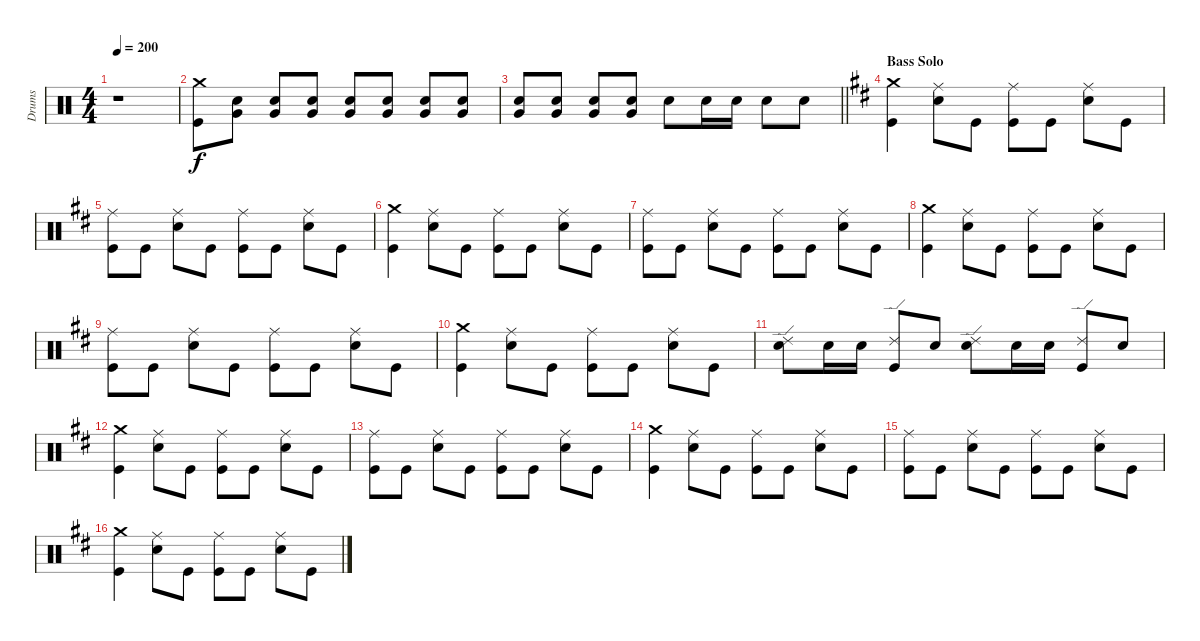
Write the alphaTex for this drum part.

\track ("Drums" "Drums") {instrument percussion}
\staff {score}
\articulation defaults
\ts (4 4)
\tempo 200
\clef neutral
\ks c
r.1{dy f} |
("Kick (hit)" "Crash medium (hit)").8 ("Snare (hit) 2" "Very Low Tom (hit)").8 ("Snare (hit) 2" "Very Low Tom (hit)").8 ("Snare (hit) 2" "Very Low Tom (hit)").8 ("Snare (hit) 2" "Very Low Tom (hit)").8 ("Snare (hit) 2" "Very Low Tom (hit)").8 ("Snare (hit) 2" "Very Low Tom (hit)").8 ("Snare (hit) 2" "Very Low Tom (hit)").8 |
\barLineRight lightlight
("Snare (hit) 2" "Very Low Tom (hit)").8 ("Snare (hit) 2" "Very Low Tom (hit)").8 ("Snare (hit) 2" "Very Low Tom (hit)").8 ("Snare (hit) 2" "Very Low Tom (hit)").8 "Snare (hit) 2".8 "Snare (hit) 2".16 "Snare (hit) 2".16 "Snare (hit) 2".8 "Snare (hit) 2".8 |
\section ("" "Bass Solo")
\ks d
("Kick (hit)" "Crash medium (hit)").4 ("Snare (hit) 2" "Ride (middle)").8 "Kick (hit)".8 ("Kick (hit)" "Ride (middle)").8 "Kick (hit)".8 ("Snare (hit) 2" "Ride (middle)").8 "Kick (hit)".8 |
("Kick (hit)" "Ride (middle)").8 "Kick (hit)".8 ("Snare (hit) 2" "Ride (middle)").8 "Kick (hit)".8 ("Kick (hit)" "Ride (middle)").8 "Kick (hit)".8 ("Snare (hit) 2" "Ride (middle)").8 "Kick (hit)".8 |
("Kick (hit)" "Crash medium (hit)").4 ("Snare (hit) 2" "Ride (middle)").8 "Kick (hit)".8 ("Kick (hit)" "Ride (middle)").8 "Kick (hit)".8 ("Snare (hit) 2" "Ride (middle)").8 "Kick (hit)".8 |
("Kick (hit)" "Ride (middle)").8 "Kick (hit)".8 ("Snare (hit) 2" "Ride (middle)").8 "Kick (hit)".8 ("Kick (hit)" "Ride (middle)").8 "Kick (hit)".8 ("Snare (hit) 2" "Ride (middle)").8 "Kick (hit)".8 |
("Kick (hit)" "Crash medium (hit)").4 ("Snare (hit) 2" "Ride (middle)").8 "Kick (hit)".8 ("Kick (hit)" "Ride (middle)").8 "Kick (hit)".8 ("Snare (hit) 2" "Ride (middle)").8 "Kick (hit)".8 |
("Kick (hit)" "Ride (middle)").8 "Kick (hit)".8 ("Snare (hit) 2" "Ride (middle)").8 "Kick (hit)".8 ("Kick (hit)" "Ride (middle)").8 "Kick (hit)".8 ("Snare (hit) 2" "Ride (middle)").8 "Kick (hit)".8 |
("Kick (hit)" "Crash medium (hit)").4 ("Snare (hit) 2" "Ride (middle)").8 "Kick (hit)".8 ("Kick (hit)" "Ride (middle)").8 "Kick (hit)".8 ("Snare (hit) 2" "Ride (middle)").8 "Kick (hit)".8 |
("Ride (edge) 2" "Snare (hit) 2").8 "Snare (hit) 2".16 "Snare (hit) 2".16 ("Ride (edge) 2" "Kick (hit)").8 "Snare (hit) 2".8 ("Ride (edge) 2" "Snare (hit) 2").8 "Snare (hit) 2".16 "Snare (hit) 2".16 ("Ride (edge) 2" "Kick (hit)").8 "Snare (hit) 2".8 |
("Kick (hit)" "Crash medium (hit)").4 ("Snare (hit) 2" "Ride (middle)").8 "Kick (hit)".8 ("Kick (hit)" "Ride (middle)").8 "Kick (hit)".8 ("Snare (hit) 2" "Ride (middle)").8 "Kick (hit)".8 |
("Kick (hit)" "Ride (middle)").8 "Kick (hit)".8 ("Snare (hit) 2" "Ride (middle)").8 "Kick (hit)".8 ("Kick (hit)" "Ride (middle)").8 "Kick (hit)".8 ("Snare (hit) 2" "Ride (middle)").8 "Kick (hit)".8 |
("Kick (hit)" "Crash medium (hit)").4 ("Snare (hit) 2" "Ride (middle)").8 "Kick (hit)".8 ("Kick (hit)" "Ride (middle)").8 "Kick (hit)".8 ("Snare (hit) 2" "Ride (middle)").8 "Kick (hit)".8 |
("Kick (hit)" "Ride (middle)").8 "Kick (hit)".8 ("Snare (hit) 2" "Ride (middle)").8 "Kick (hit)".8 ("Kick (hit)" "Ride (middle)").8 "Kick (hit)".8 ("Snare (hit) 2" "Ride (middle)").8 "Kick (hit)".8 |
("Kick (hit)" "Crash medium (hit)").4 ("Snare (hit) 2" "Ride (middle)").8 "Kick (hit)".8 ("Kick (hit)" "Ride (middle)").8 "Kick (hit)".8 ("Snare (hit) 2" "Ride (middle)").8 "Kick (hit)".8
